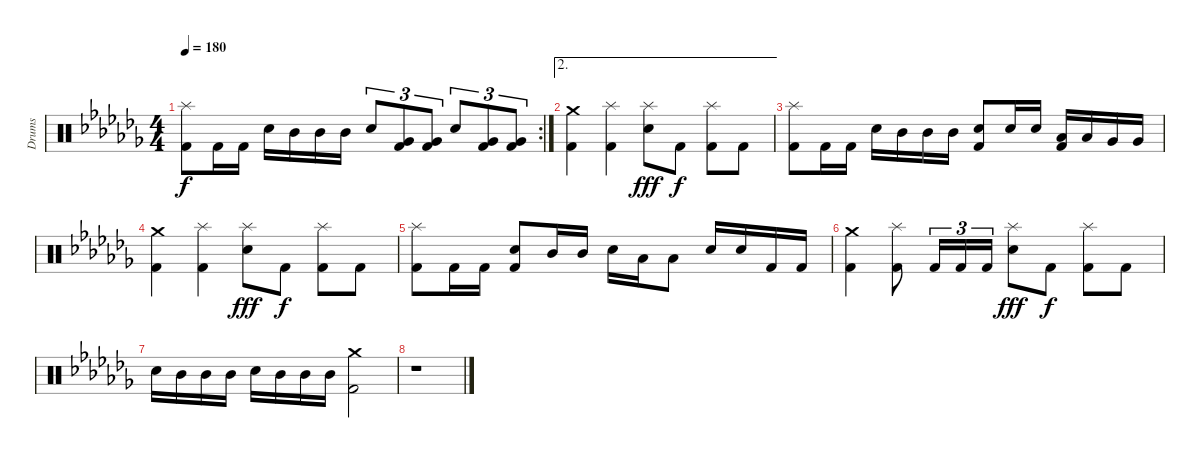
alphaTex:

\track ("Drums" "Drums") {instrument percussion}
\staff {score}
\articulation defaults
\rc 2
\ts (4 4)
\tempo 180
\clef neutral
\ks abminor
("Splash (hit)" "Kick (hit) 2").8{dy f} "Kick (hit) 2".16 "Kick (hit) 2".16 "Snare (hit) 2".16 "Mid Tom (hit)".16 "Mid Tom (hit)".16 "Mid Tom (hit)".16 "Snare (hit) 2".8{tu (3 2)} ("Very Low Tom (hit)" "Kick (hit) 2").8{tu (3 2)} ("Very Low Tom (hit)" "Kick (hit) 2").8{tu (3 2)} "Snare (hit) 2".8{tu (3 2)} ("Very Low Tom (hit)" "Kick (hit) 2").8{tu (3 2)} ("Very Low Tom (hit)" "Kick (hit) 2").8{tu (3 2)} |
\ae 2
("Crash medium (hit)" "Kick (hit) 2").4 ("Splash (hit)" "Kick (hit) 2").4 ("Splash (hit)" "Snare (hit) 2").8{dy fff} "Kick (hit) 2".8{dy f} ("Splash (hit)" "Kick (hit) 2").8 "Kick (hit) 2".8 |
("Splash (hit)" "Kick (hit) 2").8 "Kick (hit) 2".16 "Kick (hit) 2".16 "Snare (hit) 2".16 "Mid Tom (hit)".16 "Mid Tom (hit)".16 "Mid Tom (hit)".16 ("Snare (hit) 2" "Kick (hit) 2").8 "Snare (hit) 2".16 "Snare (hit) 2".16 ("Low Tom (hit)" "Kick (hit) 2").16 "Low Tom (hit)".16 "Very Low Tom (hit)".16 "Very Low Tom (hit)".16 |
("Crash medium (hit)" "Kick (hit) 2").4 ("Splash (hit)" "Kick (hit) 2").4 ("Splash (hit)" "Snare (hit) 2").8{dy fff} "Kick (hit) 2".8{dy f} ("Splash (hit)" "Kick (hit) 2").8 "Kick (hit) 2".8 |
("Splash (hit)" "Kick (hit) 2").8 "Kick (hit) 2".16 "Kick (hit) 2".16 ("Snare (hit) 2" "Kick (hit) 2").8 "Mid Tom (hit)".16 "Mid Tom (hit)".16 "Snare (hit) 2".16 "Low Tom (hit)".16 "Low Tom (hit)".8 "Snare (hit) 2".16 "Snare (hit) 2".16 "Kick (hit) 2".16 "Kick (hit) 2".16 |
("Crash medium (hit)" "Kick (hit) 2").4 ("Splash (hit)" "Kick (hit) 2").8 "Kick (hit) 2".16{tu (3 2)} "Kick (hit) 2".16{tu (3 2)} "Kick (hit) 2".16{tu (3 2)} ("Splash (hit)" "Snare (hit) 2").8{dy fff} "Kick (hit) 2".8{dy f} ("Splash (hit)" "Kick (hit) 2").8 "Kick (hit) 2".8 |
"Snare (hit) 2".16 "Mid Tom (hit)".16 "Mid Tom (hit)".16 "Mid Tom (hit)".16 "Snare (hit) 2".16 "Mid Tom (hit)".16 "Mid Tom (hit)".16 "Mid Tom (hit)".16 ("Crash medium (hit)" "Kick (hit) 2").2 |
r.1
